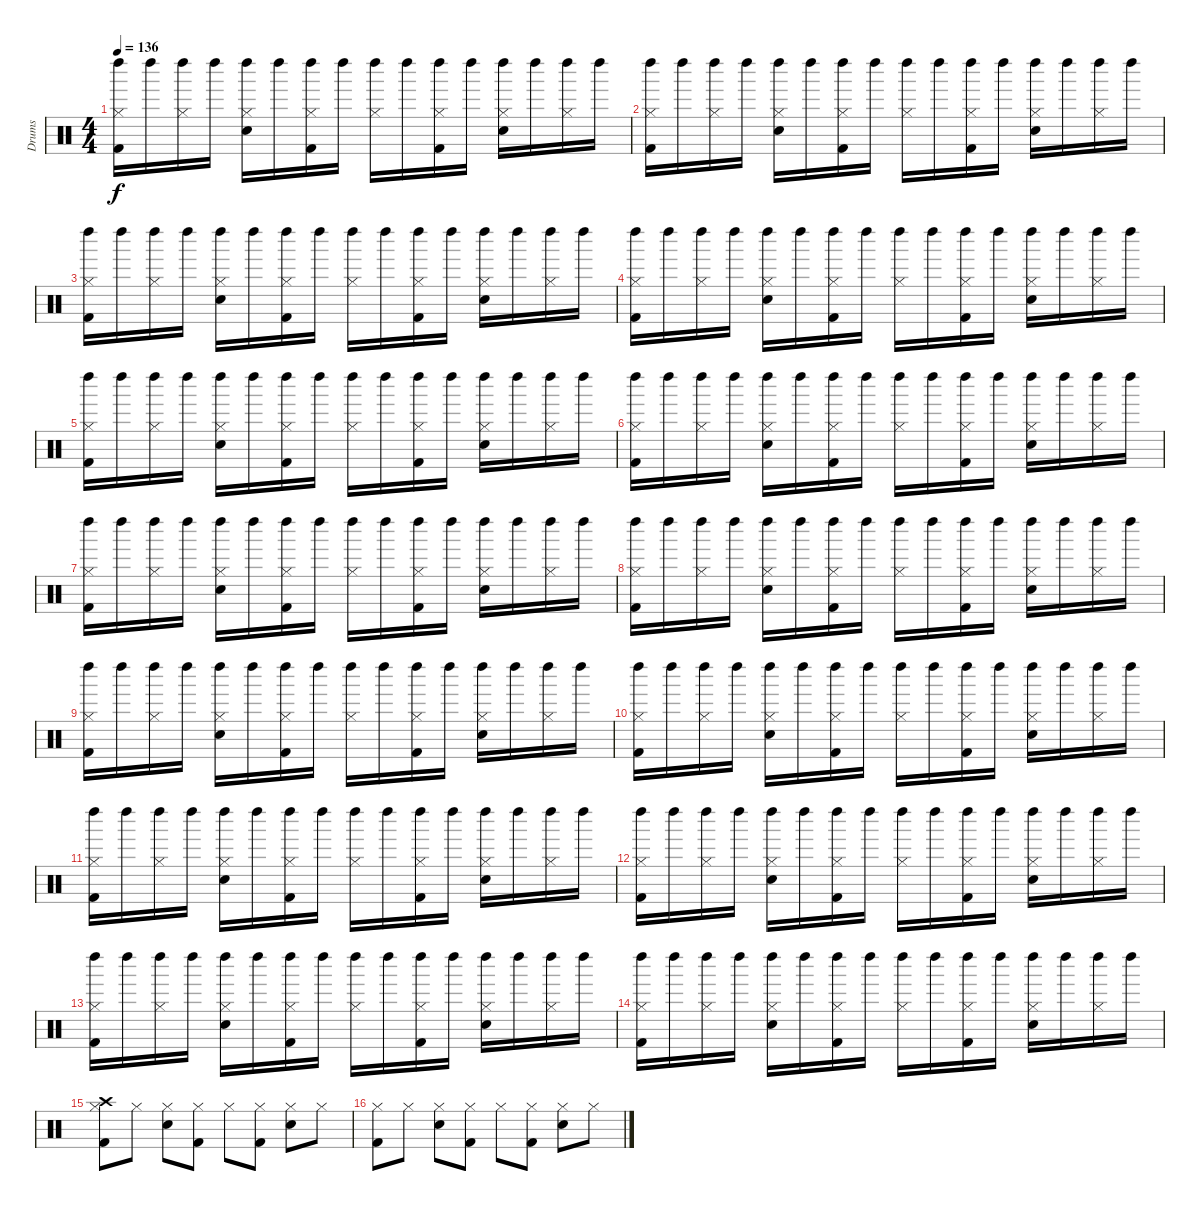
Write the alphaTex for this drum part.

\track ("Drums" "Drums") {instrument percussion}
\staff {score}
\articulation defaults
\ts (4 4)
\tempo 136
\clef neutral
\ks c
("Left Maraca (hit)" "Hi-Hat (closed)" "Kick (hit) 2").16{dy f} "Left Maraca (hit)".16 ("Left Maraca (hit)" "Hi-Hat (closed)").16 "Left Maraca (hit)".16 ("Left Maraca (hit)" "Hi-Hat (closed)" "Snare (hit) 2").16 "Left Maraca (hit)".16 ("Left Maraca (hit)" "Hi-Hat (closed)" "Kick (hit) 2").16 "Left Maraca (hit)".16 ("Left Maraca (hit)" "Hi-Hat (closed)").16 "Left Maraca (hit)".16 ("Left Maraca (hit)" "Hi-Hat (closed)" "Kick (hit) 2").16 "Left Maraca (hit)".16 ("Left Maraca (hit)" "Hi-Hat (closed)" "Snare (hit) 2").16 "Left Maraca (hit)".16 ("Left Maraca (hit)" "Hi-Hat (closed)").16 "Left Maraca (hit)".16 |
("Left Maraca (hit)" "Hi-Hat (closed)" "Kick (hit) 2").16 "Left Maraca (hit)".16 ("Left Maraca (hit)" "Hi-Hat (closed)").16 "Left Maraca (hit)".16 ("Left Maraca (hit)" "Hi-Hat (closed)" "Snare (hit) 2").16 "Left Maraca (hit)".16 ("Left Maraca (hit)" "Hi-Hat (closed)" "Kick (hit) 2").16 "Left Maraca (hit)".16 ("Left Maraca (hit)" "Hi-Hat (closed)").16 "Left Maraca (hit)".16 ("Left Maraca (hit)" "Hi-Hat (closed)" "Kick (hit) 2").16 "Left Maraca (hit)".16 ("Left Maraca (hit)" "Hi-Hat (closed)" "Snare (hit) 2").16 "Left Maraca (hit)".16 ("Left Maraca (hit)" "Hi-Hat (closed)").16 "Left Maraca (hit)".16 |
("Left Maraca (hit)" "Hi-Hat (closed)" "Kick (hit) 2").16 "Left Maraca (hit)".16 ("Left Maraca (hit)" "Hi-Hat (closed)").16 "Left Maraca (hit)".16 ("Left Maraca (hit)" "Hi-Hat (closed)" "Snare (hit) 2").16 "Left Maraca (hit)".16 ("Left Maraca (hit)" "Hi-Hat (closed)" "Kick (hit) 2").16 "Left Maraca (hit)".16 ("Left Maraca (hit)" "Hi-Hat (closed)").16 "Left Maraca (hit)".16 ("Left Maraca (hit)" "Hi-Hat (closed)" "Kick (hit) 2").16 "Left Maraca (hit)".16 ("Left Maraca (hit)" "Hi-Hat (closed)" "Snare (hit) 2").16 "Left Maraca (hit)".16 ("Left Maraca (hit)" "Hi-Hat (closed)").16 "Left Maraca (hit)".16 |
("Left Maraca (hit)" "Hi-Hat (closed)" "Kick (hit) 2").16 "Left Maraca (hit)".16 ("Left Maraca (hit)" "Hi-Hat (closed)").16 "Left Maraca (hit)".16 ("Left Maraca (hit)" "Hi-Hat (closed)" "Snare (hit) 2").16 "Left Maraca (hit)".16 ("Left Maraca (hit)" "Hi-Hat (closed)" "Kick (hit) 2").16 "Left Maraca (hit)".16 ("Left Maraca (hit)" "Hi-Hat (closed)").16 "Left Maraca (hit)".16 ("Left Maraca (hit)" "Hi-Hat (closed)" "Kick (hit) 2").16 "Left Maraca (hit)".16 ("Left Maraca (hit)" "Hi-Hat (closed)" "Snare (hit) 2").16 "Left Maraca (hit)".16 ("Left Maraca (hit)" "Hi-Hat (closed)").16 "Left Maraca (hit)".16 |
("Left Maraca (hit)" "Hi-Hat (closed)" "Kick (hit) 2").16 "Left Maraca (hit)".16 ("Left Maraca (hit)" "Hi-Hat (closed)").16 "Left Maraca (hit)".16 ("Left Maraca (hit)" "Hi-Hat (closed)" "Snare (hit) 2").16 "Left Maraca (hit)".16 ("Left Maraca (hit)" "Hi-Hat (closed)" "Kick (hit) 2").16 "Left Maraca (hit)".16 ("Left Maraca (hit)" "Hi-Hat (closed)").16 "Left Maraca (hit)".16 ("Left Maraca (hit)" "Hi-Hat (closed)" "Kick (hit) 2").16 "Left Maraca (hit)".16 ("Left Maraca (hit)" "Hi-Hat (closed)" "Snare (hit) 2").16 "Left Maraca (hit)".16 ("Left Maraca (hit)" "Hi-Hat (closed)").16 "Left Maraca (hit)".16 |
("Left Maraca (hit)" "Hi-Hat (closed)" "Kick (hit) 2").16 "Left Maraca (hit)".16 ("Left Maraca (hit)" "Hi-Hat (closed)").16 "Left Maraca (hit)".16 ("Left Maraca (hit)" "Hi-Hat (closed)" "Snare (hit) 2").16 "Left Maraca (hit)".16 ("Left Maraca (hit)" "Hi-Hat (closed)" "Kick (hit) 2").16 "Left Maraca (hit)".16 ("Left Maraca (hit)" "Hi-Hat (closed)").16 "Left Maraca (hit)".16 ("Left Maraca (hit)" "Hi-Hat (closed)" "Kick (hit) 2").16 "Left Maraca (hit)".16 ("Left Maraca (hit)" "Hi-Hat (closed)" "Snare (hit) 2").16 "Left Maraca (hit)".16 ("Left Maraca (hit)" "Hi-Hat (closed)").16 "Left Maraca (hit)".16 |
("Left Maraca (hit)" "Hi-Hat (closed)" "Kick (hit) 2").16 "Left Maraca (hit)".16 ("Left Maraca (hit)" "Hi-Hat (closed)").16 "Left Maraca (hit)".16 ("Left Maraca (hit)" "Hi-Hat (closed)" "Snare (hit) 2").16 "Left Maraca (hit)".16 ("Left Maraca (hit)" "Hi-Hat (closed)" "Kick (hit) 2").16 "Left Maraca (hit)".16 ("Left Maraca (hit)" "Hi-Hat (closed)").16 "Left Maraca (hit)".16 ("Left Maraca (hit)" "Hi-Hat (closed)" "Kick (hit) 2").16 "Left Maraca (hit)".16 ("Left Maraca (hit)" "Hi-Hat (closed)" "Snare (hit) 2").16 "Left Maraca (hit)".16 ("Left Maraca (hit)" "Hi-Hat (closed)").16 "Left Maraca (hit)".16 |
("Left Maraca (hit)" "Hi-Hat (closed)" "Kick (hit) 2").16 "Left Maraca (hit)".16 ("Left Maraca (hit)" "Hi-Hat (closed)").16 "Left Maraca (hit)".16 ("Left Maraca (hit)" "Hi-Hat (closed)" "Snare (hit) 2").16 "Left Maraca (hit)".16 ("Left Maraca (hit)" "Hi-Hat (closed)" "Kick (hit) 2").16 "Left Maraca (hit)".16 ("Left Maraca (hit)" "Hi-Hat (closed)").16 "Left Maraca (hit)".16 ("Left Maraca (hit)" "Hi-Hat (closed)" "Kick (hit) 2").16 "Left Maraca (hit)".16 ("Left Maraca (hit)" "Hi-Hat (closed)" "Snare (hit) 2").16 "Left Maraca (hit)".16 ("Left Maraca (hit)" "Hi-Hat (closed)").16 "Left Maraca (hit)".16 |
("Left Maraca (hit)" "Hi-Hat (closed)" "Kick (hit) 2").16 "Left Maraca (hit)".16 ("Left Maraca (hit)" "Hi-Hat (closed)").16 "Left Maraca (hit)".16 ("Left Maraca (hit)" "Hi-Hat (closed)" "Snare (hit) 2").16 "Left Maraca (hit)".16 ("Left Maraca (hit)" "Hi-Hat (closed)" "Kick (hit) 2").16 "Left Maraca (hit)".16 ("Left Maraca (hit)" "Hi-Hat (closed)").16 "Left Maraca (hit)".16 ("Left Maraca (hit)" "Hi-Hat (closed)" "Kick (hit) 2").16 "Left Maraca (hit)".16 ("Left Maraca (hit)" "Hi-Hat (closed)" "Snare (hit) 2").16 "Left Maraca (hit)".16 ("Left Maraca (hit)" "Hi-Hat (closed)").16 "Left Maraca (hit)".16 |
("Left Maraca (hit)" "Hi-Hat (closed)" "Kick (hit) 2").16 "Left Maraca (hit)".16 ("Left Maraca (hit)" "Hi-Hat (closed)").16 "Left Maraca (hit)".16 ("Left Maraca (hit)" "Hi-Hat (closed)" "Snare (hit) 2").16 "Left Maraca (hit)".16 ("Left Maraca (hit)" "Hi-Hat (closed)" "Kick (hit) 2").16 "Left Maraca (hit)".16 ("Left Maraca (hit)" "Hi-Hat (closed)").16 "Left Maraca (hit)".16 ("Left Maraca (hit)" "Hi-Hat (closed)" "Kick (hit) 2").16 "Left Maraca (hit)".16 ("Left Maraca (hit)" "Hi-Hat (closed)" "Snare (hit) 2").16 "Left Maraca (hit)".16 ("Left Maraca (hit)" "Hi-Hat (closed)").16 "Left Maraca (hit)".16 |
("Left Maraca (hit)" "Hi-Hat (closed)" "Kick (hit) 2").16 "Left Maraca (hit)".16 ("Left Maraca (hit)" "Hi-Hat (closed)").16 "Left Maraca (hit)".16 ("Left Maraca (hit)" "Hi-Hat (closed)" "Snare (hit) 2").16 "Left Maraca (hit)".16 ("Left Maraca (hit)" "Hi-Hat (closed)" "Kick (hit) 2").16 "Left Maraca (hit)".16 ("Left Maraca (hit)" "Hi-Hat (closed)").16 "Left Maraca (hit)".16 ("Left Maraca (hit)" "Hi-Hat (closed)" "Kick (hit) 2").16 "Left Maraca (hit)".16 ("Left Maraca (hit)" "Hi-Hat (closed)" "Snare (hit) 2").16 "Left Maraca (hit)".16 ("Left Maraca (hit)" "Hi-Hat (closed)").16 "Left Maraca (hit)".16 |
("Left Maraca (hit)" "Hi-Hat (closed)" "Kick (hit) 2").16 "Left Maraca (hit)".16 ("Left Maraca (hit)" "Hi-Hat (closed)").16 "Left Maraca (hit)".16 ("Left Maraca (hit)" "Hi-Hat (closed)" "Snare (hit) 2").16 "Left Maraca (hit)".16 ("Left Maraca (hit)" "Hi-Hat (closed)" "Kick (hit) 2").16 "Left Maraca (hit)".16 ("Left Maraca (hit)" "Hi-Hat (closed)").16 "Left Maraca (hit)".16 ("Left Maraca (hit)" "Hi-Hat (closed)" "Kick (hit) 2").16 "Left Maraca (hit)".16 ("Left Maraca (hit)" "Hi-Hat (closed)" "Snare (hit) 2").16 "Left Maraca (hit)".16 ("Left Maraca (hit)" "Hi-Hat (closed)").16 "Left Maraca (hit)".16 |
("Left Maraca (hit)" "Hi-Hat (closed)" "Kick (hit) 2").16 "Left Maraca (hit)".16 ("Left Maraca (hit)" "Hi-Hat (closed)").16 "Left Maraca (hit)".16 ("Left Maraca (hit)" "Hi-Hat (closed)" "Snare (hit) 2").16 "Left Maraca (hit)".16 ("Left Maraca (hit)" "Hi-Hat (closed)" "Kick (hit) 2").16 "Left Maraca (hit)".16 ("Left Maraca (hit)" "Hi-Hat (closed)").16 "Left Maraca (hit)".16 ("Left Maraca (hit)" "Hi-Hat (closed)" "Kick (hit) 2").16 "Left Maraca (hit)".16 ("Left Maraca (hit)" "Hi-Hat (closed)" "Snare (hit) 2").16 "Left Maraca (hit)".16 ("Left Maraca (hit)" "Hi-Hat (closed)").16 "Left Maraca (hit)".16 |
("Left Maraca (hit)" "Hi-Hat (closed)" "Kick (hit) 2").16 "Left Maraca (hit)".16 ("Left Maraca (hit)" "Hi-Hat (closed)").16 "Left Maraca (hit)".16 ("Left Maraca (hit)" "Hi-Hat (closed)" "Snare (hit) 2").16 "Left Maraca (hit)".16 ("Left Maraca (hit)" "Hi-Hat (closed)" "Kick (hit) 2").16 "Left Maraca (hit)".16 ("Left Maraca (hit)" "Hi-Hat (closed)").16 "Left Maraca (hit)".16 ("Left Maraca (hit)" "Hi-Hat (closed)" "Kick (hit) 2").16 "Left Maraca (hit)".16 ("Left Maraca (hit)" "Hi-Hat (closed)" "Snare (hit) 2").16 "Left Maraca (hit)".16 ("Left Maraca (hit)" "Hi-Hat (closed)").16 "Left Maraca (hit)".16 |
("Crash high (hit)" "Hi-Hat (closed)" "Kick (hit) 2").8 "Hi-Hat (closed)".8 ("Hi-Hat (closed)" "Snare (hit) 2").8 ("Hi-Hat (closed)" "Kick (hit) 2").8 "Hi-Hat (closed)".8 ("Hi-Hat (closed)" "Kick (hit) 2").8 ("Hi-Hat (closed)" "Snare (hit) 2").8 "Hi-Hat (closed)".8 |
("Hi-Hat (closed)" "Kick (hit) 2").8 "Hi-Hat (closed)".8 ("Hi-Hat (closed)" "Snare (hit) 2").8 ("Hi-Hat (closed)" "Kick (hit) 2").8 "Hi-Hat (closed)".8 ("Hi-Hat (closed)" "Kick (hit) 2").8 ("Hi-Hat (closed)" "Snare (hit) 2").8 "Hi-Hat (closed)".8
